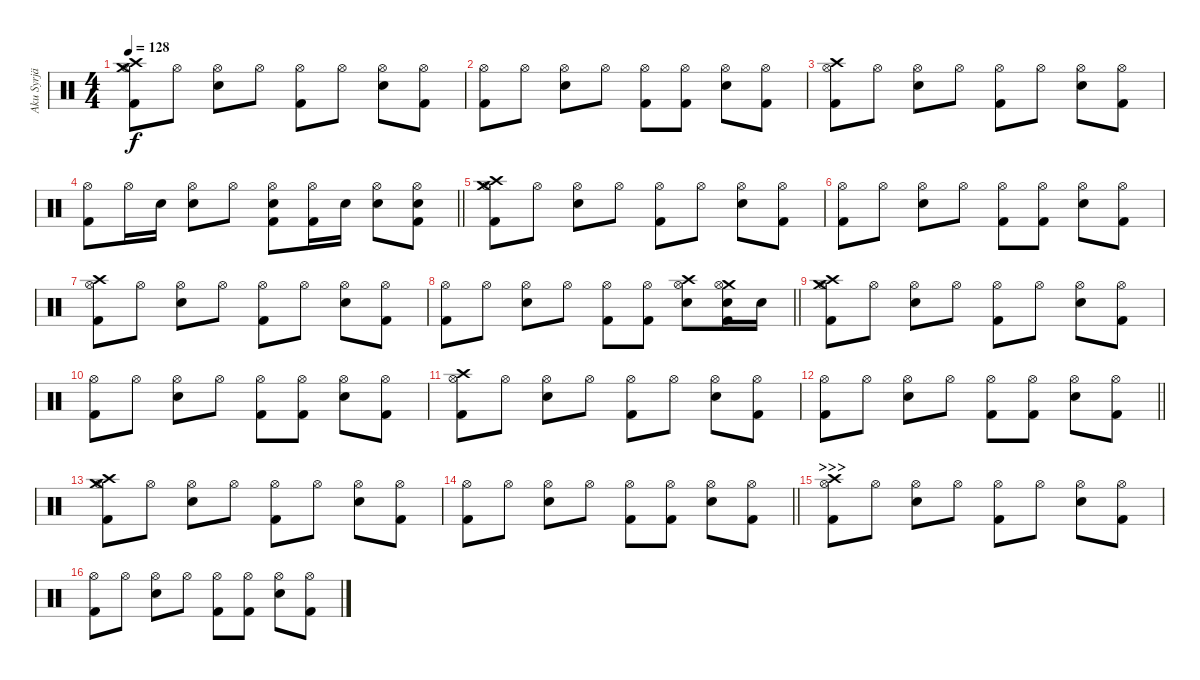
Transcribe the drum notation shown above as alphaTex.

\track ("Aku Syrjä" "Aku Syrjä") {instrument percussion}
\staff {score}
\articulation defaults
\ts (4 4)
\tempo 128
\clef neutral
\ks c
("Crash high (hit)" "Crash medium (hit)" "Hi-Hat (open)" "Kick (hit) 2").8{dy f} "Hi-Hat (open)".8 ("Hi-Hat (open)" "Electric Snare (hit)").8 "Hi-Hat (open)".8 ("Hi-Hat (open)" "Kick (hit) 2").8 "Hi-Hat (open)".8 ("Hi-Hat (open)" "Electric Snare (hit)").8 ("Hi-Hat (open)" "Kick (hit) 2").8 |
("Hi-Hat (open)" "Kick (hit) 2").8 "Hi-Hat (open)".8 ("Hi-Hat (open)" "Electric Snare (hit)").8 "Hi-Hat (open)".8 ("Hi-Hat (open)" "Kick (hit) 2").8 ("Hi-Hat (open)" "Kick (hit) 2").8 ("Hi-Hat (open)" "Electric Snare (hit)").8 ("Hi-Hat (open)" "Kick (hit) 2").8 |
("Crash high (hit)" "Hi-Hat (open)" "Kick (hit) 2").8 "Hi-Hat (open)".8 ("Hi-Hat (open)" "Electric Snare (hit)").8 "Hi-Hat (open)".8 ("Hi-Hat (open)" "Kick (hit) 2").8 "Hi-Hat (open)".8 ("Hi-Hat (open)" "Electric Snare (hit)").8 ("Hi-Hat (open)" "Kick (hit) 2").8 |
\barLineRight lightlight
("Hi-Hat (open)" "Kick (hit) 2").8 "Hi-Hat (open)".16 "Electric Snare (hit)".16 ("Hi-Hat (open)" "Electric Snare (hit)").8 "Hi-Hat (open)".8 ("Hi-Hat (open)" "Electric Snare (hit)" "Kick (hit) 2").8 ("Hi-Hat (open)" "Kick (hit) 2").16 "Electric Snare (hit)".16 ("Hi-Hat (open)" "Electric Snare (hit)").8 ("Hi-Hat (open)" "Electric Snare (hit)" "Kick (hit) 2").8 |
("Crash high (hit)" "Crash medium (hit)" "Hi-Hat (open)" "Kick (hit) 2").8 "Hi-Hat (open)".8 ("Hi-Hat (open)" "Electric Snare (hit)").8 "Hi-Hat (open)".8 ("Hi-Hat (open)" "Kick (hit) 2").8 "Hi-Hat (open)".8 ("Hi-Hat (open)" "Electric Snare (hit)").8 ("Hi-Hat (open)" "Kick (hit) 2").8 |
("Hi-Hat (open)" "Kick (hit) 2").8 "Hi-Hat (open)".8 ("Hi-Hat (open)" "Electric Snare (hit)").8 "Hi-Hat (open)".8 ("Hi-Hat (open)" "Kick (hit) 2").8 ("Hi-Hat (open)" "Kick (hit) 2").8 ("Hi-Hat (open)" "Electric Snare (hit)").8 ("Hi-Hat (open)" "Kick (hit) 2").8 |
("Crash high (hit)" "Hi-Hat (open)" "Kick (hit) 2").8 "Hi-Hat (open)".8 ("Hi-Hat (open)" "Electric Snare (hit)").8 "Hi-Hat (open)".8 ("Hi-Hat (open)" "Kick (hit) 2").8 "Hi-Hat (open)".8 ("Hi-Hat (open)" "Electric Snare (hit)").8 ("Hi-Hat (open)" "Kick (hit) 2").8 |
\barLineRight lightlight
("Hi-Hat (open)" "Kick (hit) 2").8 "Hi-Hat (open)".8 ("Hi-Hat (open)" "Electric Snare (hit)").8 "Hi-Hat (open)".8 ("Hi-Hat (open)" "Kick (hit) 2").8 ("Hi-Hat (open)" "Kick (hit) 2").8 ("Crash high (hit)" "Hi-Hat (open)" "Electric Snare (hit)").8 ("Crash medium (hit)" "Hi-Hat (open)" "Electric Snare (hit)" "Kick (hit) 2").16 "Electric Snare (hit)".16 |
("Crash high (hit)" "Crash medium (hit)" "Hi-Hat (open)" "Kick (hit) 2").8 "Hi-Hat (open)".8 ("Hi-Hat (open)" "Electric Snare (hit)").8 "Hi-Hat (open)".8 ("Hi-Hat (open)" "Kick (hit) 2").8 "Hi-Hat (open)".8 ("Hi-Hat (open)" "Electric Snare (hit)").8 ("Hi-Hat (open)" "Kick (hit) 2").8 |
("Hi-Hat (open)" "Kick (hit) 2").8 "Hi-Hat (open)".8 ("Hi-Hat (open)" "Electric Snare (hit)").8 "Hi-Hat (open)".8 ("Hi-Hat (open)" "Kick (hit) 2").8 ("Hi-Hat (open)" "Kick (hit) 2").8 ("Hi-Hat (open)" "Electric Snare (hit)").8 ("Hi-Hat (open)" "Kick (hit) 2").8 |
("Crash high (hit)" "Hi-Hat (open)" "Kick (hit) 2").8 "Hi-Hat (open)".8 ("Hi-Hat (open)" "Electric Snare (hit)").8 "Hi-Hat (open)".8 ("Hi-Hat (open)" "Kick (hit) 2").8 "Hi-Hat (open)".8 ("Hi-Hat (open)" "Electric Snare (hit)").8 ("Hi-Hat (open)" "Kick (hit) 2").8 |
\barLineRight lightlight
("Hi-Hat (open)" "Kick (hit) 2").8 "Hi-Hat (open)".8 ("Hi-Hat (open)" "Electric Snare (hit)").8 "Hi-Hat (open)".8 ("Hi-Hat (open)" "Kick (hit) 2").8 ("Hi-Hat (open)" "Kick (hit) 2").8 ("Hi-Hat (open)" "Electric Snare (hit)").8 ("Hi-Hat (open)" "Kick (hit) 2").8 |
("Crash high (hit)" "Crash medium (hit)" "Hi-Hat (open)" "Kick (hit) 2").8 "Hi-Hat (open)".8 ("Hi-Hat (open)" "Electric Snare (hit)").8 "Hi-Hat (open)".8 ("Hi-Hat (open)" "Kick (hit) 2").8 "Hi-Hat (open)".8 ("Hi-Hat (open)" "Electric Snare (hit)").8 ("Hi-Hat (open)" "Kick (hit) 2").8 |
\barLineRight lightlight
("Hi-Hat (open)" "Kick (hit) 2").8 "Hi-Hat (open)".8 ("Hi-Hat (open)" "Electric Snare (hit)").8 "Hi-Hat (open)".8 ("Hi-Hat (open)" "Kick (hit) 2").8 ("Hi-Hat (open)" "Kick (hit) 2").8 ("Hi-Hat (open)" "Electric Snare (hit)").8 ("Hi-Hat (open)" "Kick (hit) 2").8 |
\section ("" ">>>")
("Crash high (hit)" "Hi-Hat (open)" "Kick (hit) 2").8 "Hi-Hat (open)".8 ("Hi-Hat (open)" "Electric Snare (hit)").8 "Hi-Hat (open)".8 ("Hi-Hat (open)" "Kick (hit) 2").8 "Hi-Hat (open)".8 ("Hi-Hat (open)" "Electric Snare (hit)").8 ("Hi-Hat (open)" "Kick (hit) 2").8 |
("Hi-Hat (open)" "Kick (hit) 2").8 "Hi-Hat (open)".8 ("Hi-Hat (open)" "Electric Snare (hit)").8 "Hi-Hat (open)".8 ("Hi-Hat (open)" "Kick (hit) 2").8 ("Hi-Hat (open)" "Kick (hit) 2").8 ("Hi-Hat (open)" "Electric Snare (hit)").8 ("Hi-Hat (open)" "Kick (hit) 2").8
